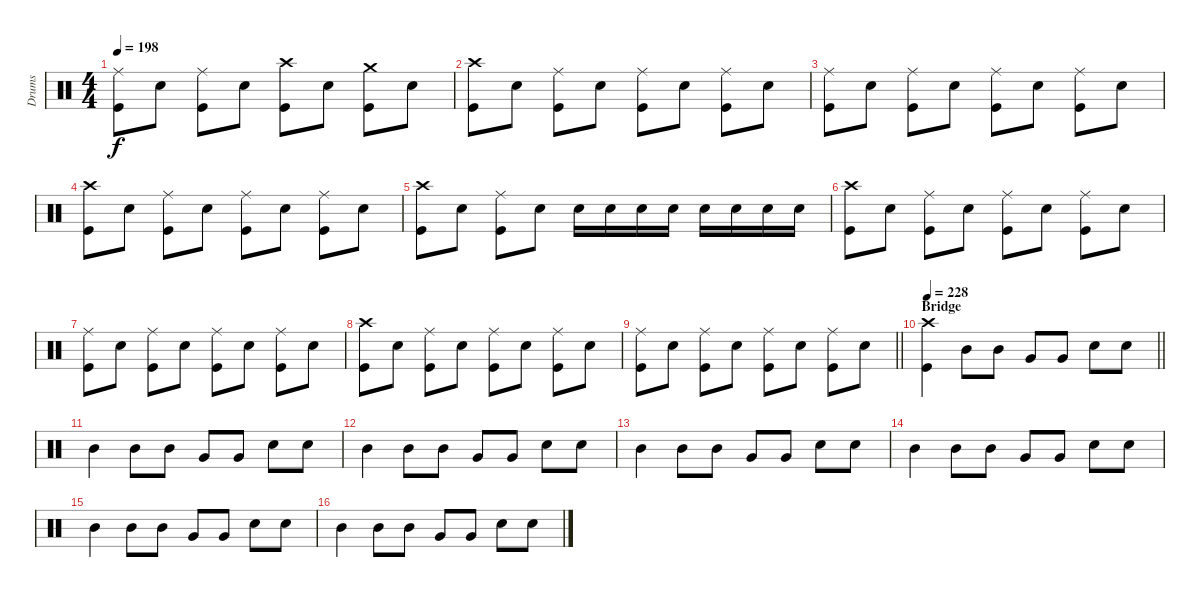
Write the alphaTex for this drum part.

\track ("Drums" "Drums") {instrument percussion}
\staff {score}
\articulation defaults
\ts (4 4)
\tempo 198
\clef neutral
\ks c
("Ride (middle)" "Kick (hit)").8{dy f} "Electric Snare (hit)".8 ("Ride (middle)" "Kick (hit)").8 "Electric Snare (hit)".8 ("Crash high (hit)" "Kick (hit)").8 "Electric Snare (hit)".8 ("Crash medium (hit)" "Kick (hit)").8 "Electric Snare (hit)".8 |
("Crash high (hit)" "Kick (hit)").8 "Electric Snare (hit)".8 ("Ride (middle)" "Kick (hit)").8 "Electric Snare (hit)".8 ("Ride (middle)" "Kick (hit)").8 "Electric Snare (hit)".8 ("Ride (middle)" "Kick (hit)").8 "Electric Snare (hit)".8 |
("Ride (middle)" "Kick (hit)").8 "Electric Snare (hit)".8 ("Ride (middle)" "Kick (hit)").8 "Electric Snare (hit)".8 ("Ride (middle)" "Kick (hit)").8 "Electric Snare (hit)".8 ("Ride (middle)" "Kick (hit)").8 "Electric Snare (hit)".8 |
("Crash high (hit)" "Kick (hit)").8 "Electric Snare (hit)".8 ("Ride (middle)" "Kick (hit)").8 "Electric Snare (hit)".8 ("Ride (middle)" "Kick (hit)").8 "Electric Snare (hit)".8 ("Ride (middle)" "Kick (hit)").8 "Electric Snare (hit)".8 |
("Crash high (hit)" "Kick (hit)").8 "Electric Snare (hit)".8 ("Ride (middle)" "Kick (hit)").8 "Electric Snare (hit)".8 "Electric Snare (hit)".16 "Electric Snare (hit)".16 "Electric Snare (hit)".16 "Electric Snare (hit)".16 "Electric Snare (hit)".16 "Electric Snare (hit)".16 "Electric Snare (hit)".16 "Electric Snare (hit)".16 |
("Crash high (hit)" "Kick (hit)").8 "Electric Snare (hit)".8 ("Ride (middle)" "Kick (hit)").8 "Electric Snare (hit)".8 ("Ride (middle)" "Kick (hit)").8 "Electric Snare (hit)".8 ("Ride (middle)" "Kick (hit)").8 "Electric Snare (hit)".8 |
("Ride (middle)" "Kick (hit)").8 "Electric Snare (hit)".8 ("Ride (middle)" "Kick (hit)").8 "Electric Snare (hit)".8 ("Ride (middle)" "Kick (hit)").8 "Electric Snare (hit)".8 ("Ride (middle)" "Kick (hit)").8 "Electric Snare (hit)".8 |
("Crash high (hit)" "Kick (hit)").8 "Electric Snare (hit)".8 ("Ride (middle)" "Kick (hit)").8 "Electric Snare (hit)".8 ("Ride (middle)" "Kick (hit)").8 "Electric Snare (hit)".8 ("Ride (middle)" "Kick (hit)").8 "Electric Snare (hit)".8 |
\barLineRight lightlight
("Ride (middle)" "Kick (hit)").8 "Electric Snare (hit)".8 ("Ride (middle)" "Kick (hit)").8 "Electric Snare (hit)".8 ("Ride (middle)" "Kick (hit)").8 "Electric Snare (hit)".8 ("Ride (middle)" "Kick (hit)").8 "Electric Snare (hit)".8 |
\section ("" "Bridge")
\tempo 228
\barLineRight lightlight
("Crash high (hit)" "Kick (hit)").4 "Mid Tom (hit)".8 "Mid Tom (hit)".8 "Very Low Tom (hit)".8 "Very Low Tom (hit)".8 "Electric Snare (hit)".8 "Electric Snare (hit)".8 |
\section ("" "")
"Mid Tom (hit)".4 "Mid Tom (hit)".8 "Mid Tom (hit)".8 "Very Low Tom (hit)".8 "Very Low Tom (hit)".8 "Electric Snare (hit)".8 "Electric Snare (hit)".8 |
"Mid Tom (hit)".4 "Mid Tom (hit)".8 "Mid Tom (hit)".8 "Very Low Tom (hit)".8 "Very Low Tom (hit)".8 "Electric Snare (hit)".8 "Electric Snare (hit)".8 |
"Mid Tom (hit)".4 "Mid Tom (hit)".8 "Mid Tom (hit)".8 "Very Low Tom (hit)".8 "Very Low Tom (hit)".8 "Electric Snare (hit)".8 "Electric Snare (hit)".8 |
"Mid Tom (hit)".4 "Mid Tom (hit)".8 "Mid Tom (hit)".8 "Very Low Tom (hit)".8 "Very Low Tom (hit)".8 "Electric Snare (hit)".8 "Electric Snare (hit)".8 |
"Mid Tom (hit)".4 "Mid Tom (hit)".8 "Mid Tom (hit)".8 "Very Low Tom (hit)".8 "Very Low Tom (hit)".8 "Electric Snare (hit)".8 "Electric Snare (hit)".8 |
"Mid Tom (hit)".4 "Mid Tom (hit)".8 "Mid Tom (hit)".8 "Very Low Tom (hit)".8 "Very Low Tom (hit)".8 "Electric Snare (hit)".8 "Electric Snare (hit)".8
